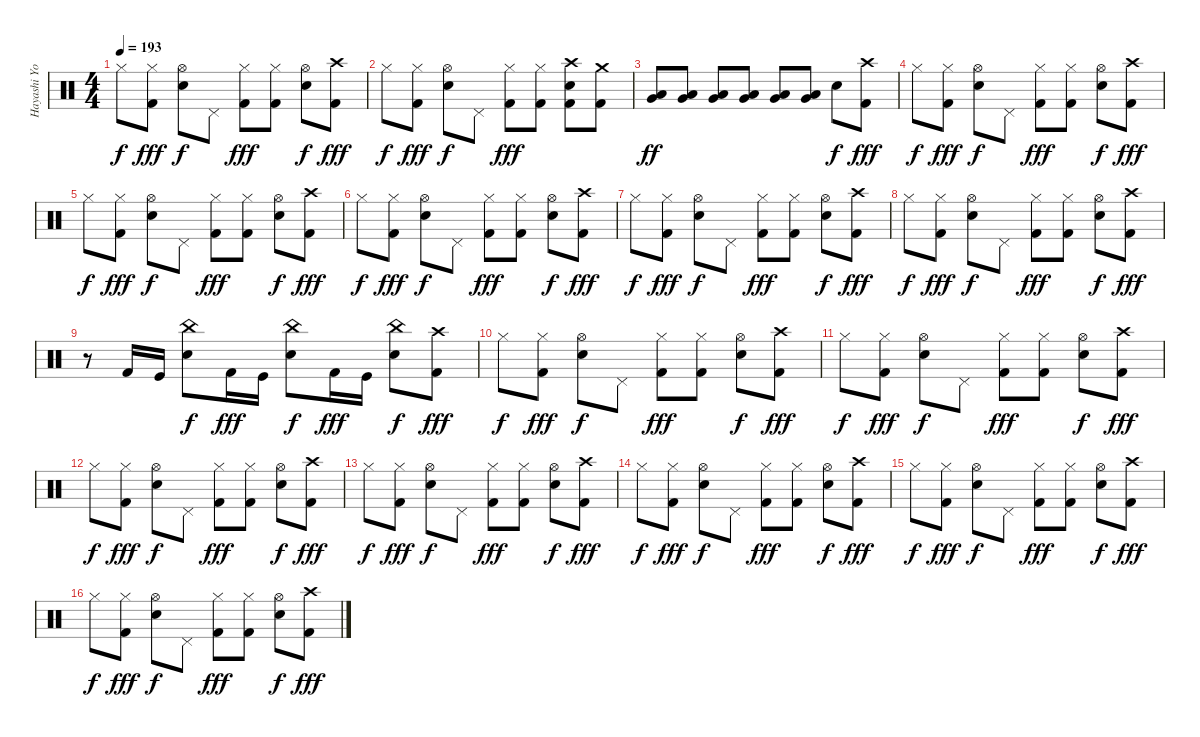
\track ("Hayashi Yoshiki(Yoshiki)" "Hayashi Yo") {instrument percussion}
\staff {score}
\articulation defaults
\ts (4 4)
\tempo 193
\clef neutral
\ks c "Hi-Hat (closed)".8{dy f}
("Hi-Hat (closed)" "Kick (hit) 2").8{dy fff} ("Hi-Hat (open)" "Electric Snare (hit)").8{dy f} "Pedal Hi-Hat (hit)".8 ("Hi-Hat (closed)" "Kick (hit) 2").8{dy fff} ("Hi-Hat (closed)" "Kick (hit) 2").8 ("Hi-Hat (open)" "Electric Snare (hit)").8{dy f} ("Crash high (hit)" "Kick (hit) 2").8{dy fff} |
"Hi-Hat (closed)".8{dy f} ("Hi-Hat (closed)" "Kick (hit) 2").8{dy fff} ("Hi-Hat (open)" "Electric Snare (hit)").8{dy f} "Pedal Hi-Hat (hit)".8 ("Hi-Hat (closed)" "Kick (hit) 2").8{dy fff} ("Hi-Hat (closed)" "Kick (hit) 2").8 ("Crash high (hit)" "Electric Snare (hit)" "Kick (hit) 2").8 ("Crash medium (hit)" "Kick (hit) 2").8 |
("Very Low Tom (hit)" "Low Tom (hit)").8{dy ff} ("Very Low Tom (hit)" "Low Tom (hit)").8 ("Very Low Tom (hit)" "Low Tom (hit)").8 ("Very Low Tom (hit)" "Low Tom (hit)").8 ("Very Low Tom (hit)" "Low Tom (hit)").8 ("Very Low Tom (hit)" "Low Tom (hit)").8 "Electric Snare (hit)".8{dy f} ("Crash high (hit)" "Kick (hit) 2").8{dy fff} |
"Hi-Hat (closed)".8{dy f} ("Hi-Hat (closed)" "Kick (hit) 2").8{dy fff} ("Hi-Hat (open)" "Electric Snare (hit)").8{dy f} "Pedal Hi-Hat (hit)".8 ("Hi-Hat (closed)" "Kick (hit) 2").8{dy fff} ("Hi-Hat (closed)" "Kick (hit) 2").8 ("Hi-Hat (open)" "Electric Snare (hit)").8{dy f} ("Crash high (hit)" "Kick (hit) 2").8{dy fff} |
"Hi-Hat (closed)".8{dy f} ("Hi-Hat (closed)" "Kick (hit) 2").8{dy fff} ("Hi-Hat (open)" "Electric Snare (hit)").8{dy f} "Pedal Hi-Hat (hit)".8 ("Hi-Hat (closed)" "Kick (hit) 2").8{dy fff} ("Hi-Hat (closed)" "Kick (hit) 2").8 ("Hi-Hat (open)" "Electric Snare (hit)").8{dy f} ("Crash high (hit)" "Kick (hit) 2").8{dy fff} |
"Hi-Hat (closed)".8{dy f} ("Hi-Hat (closed)" "Kick (hit) 2").8{dy fff} ("Hi-Hat (open)" "Electric Snare (hit)").8{dy f} "Pedal Hi-Hat (hit)".8 ("Hi-Hat (closed)" "Kick (hit) 2").8{dy fff} ("Hi-Hat (closed)" "Kick (hit) 2").8 ("Hi-Hat (open)" "Electric Snare (hit)").8{dy f} ("Crash high (hit)" "Kick (hit) 2").8{dy fff} |
"Hi-Hat (closed)".8{dy f} ("Hi-Hat (closed)" "Kick (hit) 2").8{dy fff} ("Hi-Hat (open)" "Electric Snare (hit)").8{dy f} "Pedal Hi-Hat (hit)".8 ("Hi-Hat (closed)" "Kick (hit) 2").8{dy fff} ("Hi-Hat (closed)" "Kick (hit) 2").8 ("Hi-Hat (open)" "Electric Snare (hit)").8{dy f} ("Crash high (hit)" "Kick (hit) 2").8{dy fff} |
"Hi-Hat (closed)".8{dy f} ("Hi-Hat (closed)" "Kick (hit) 2").8{dy fff} ("Hi-Hat (open)" "Electric Snare (hit)").8{dy f} "Pedal Hi-Hat (hit)".8 ("Hi-Hat (closed)" "Kick (hit) 2").8{dy fff} ("Hi-Hat (closed)" "Kick (hit) 2").8 ("Hi-Hat (open)" "Electric Snare (hit)").8{dy f} ("Crash high (hit)" "Kick (hit) 2").8{dy fff} |
r.8 "Kick (hit) 2".16 "Kick (hit)".16 ("China (hit)" "Electric Snare (hit)").8{dy f} "Kick (hit) 2".16{dy fff} "Kick (hit)".16 ("China (hit)" "Electric Snare (hit)").8{dy f} "Kick (hit) 2".16{dy fff} "Kick (hit)".16 ("China (hit)" "Electric Snare (hit)").8{dy f} ("Crash high (hit)" "Kick (hit) 2").8{dy fff} |
"Hi-Hat (closed)".8{dy f} ("Hi-Hat (closed)" "Kick (hit) 2").8{dy fff} ("Hi-Hat (open)" "Electric Snare (hit)").8{dy f} "Pedal Hi-Hat (hit)".8 ("Hi-Hat (closed)" "Kick (hit) 2").8{dy fff} ("Hi-Hat (closed)" "Kick (hit) 2").8 ("Hi-Hat (open)" "Electric Snare (hit)").8{dy f} ("Crash high (hit)" "Kick (hit) 2").8{dy fff} |
"Hi-Hat (closed)".8{dy f} ("Hi-Hat (closed)" "Kick (hit) 2").8{dy fff} ("Hi-Hat (open)" "Electric Snare (hit)").8{dy f} "Pedal Hi-Hat (hit)".8 ("Hi-Hat (closed)" "Kick (hit) 2").8{dy fff} ("Hi-Hat (closed)" "Kick (hit) 2").8 ("Hi-Hat (open)" "Electric Snare (hit)").8{dy f} ("Crash high (hit)" "Kick (hit) 2").8{dy fff} |
"Hi-Hat (closed)".8{dy f} ("Hi-Hat (closed)" "Kick (hit) 2").8{dy fff} ("Hi-Hat (open)" "Electric Snare (hit)").8{dy f} "Pedal Hi-Hat (hit)".8 ("Hi-Hat (closed)" "Kick (hit) 2").8{dy fff} ("Hi-Hat (closed)" "Kick (hit) 2").8 ("Hi-Hat (open)" "Electric Snare (hit)").8{dy f} ("Crash high (hit)" "Kick (hit) 2").8{dy fff} |
"Hi-Hat (closed)".8{dy f} ("Hi-Hat (closed)" "Kick (hit) 2").8{dy fff} ("Hi-Hat (open)" "Electric Snare (hit)").8{dy f} "Pedal Hi-Hat (hit)".8 ("Hi-Hat (closed)" "Kick (hit) 2").8{dy fff} ("Hi-Hat (closed)" "Kick (hit) 2").8 ("Hi-Hat (open)" "Electric Snare (hit)").8{dy f} ("Crash high (hit)" "Kick (hit) 2").8{dy fff} |
"Hi-Hat (closed)".8{dy f} ("Hi-Hat (closed)" "Kick (hit) 2").8{dy fff} ("Hi-Hat (open)" "Electric Snare (hit)").8{dy f} "Pedal Hi-Hat (hit)".8 ("Hi-Hat (closed)" "Kick (hit) 2").8{dy fff} ("Hi-Hat (closed)" "Kick (hit) 2").8 ("Hi-Hat (open)" "Electric Snare (hit)").8{dy f} ("Crash high (hit)" "Kick (hit) 2").8{dy fff} |
"Hi-Hat (closed)".8{dy f} ("Hi-Hat (closed)" "Kick (hit) 2").8{dy fff} ("Hi-Hat (open)" "Electric Snare (hit)").8{dy f} "Pedal Hi-Hat (hit)".8 ("Hi-Hat (closed)" "Kick (hit) 2").8{dy fff} ("Hi-Hat (closed)" "Kick (hit) 2").8 ("Hi-Hat (open)" "Electric Snare (hit)").8{dy f} ("Crash high (hit)" "Kick (hit) 2").8{dy fff} |
"Hi-Hat (closed)".8{dy f} ("Hi-Hat (closed)" "Kick (hit) 2").8{dy fff} ("Hi-Hat (open)" "Electric Snare (hit)").8{dy f} "Pedal Hi-Hat (hit)".8 ("Hi-Hat (closed)" "Kick (hit) 2").8{dy fff} ("Hi-Hat (closed)" "Kick (hit) 2").8 ("Hi-Hat (open)" "Electric Snare (hit)").8{dy f} ("Crash high (hit)" "Kick (hit) 2").8{dy fff}
